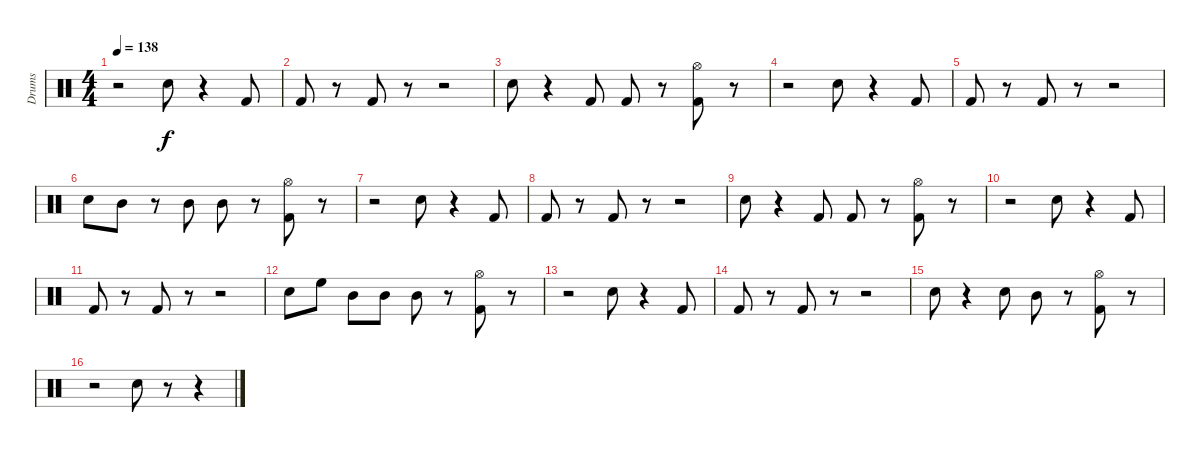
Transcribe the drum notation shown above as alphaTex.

\track ("Drums" "Drums") {instrument percussion}
\staff {score}
\articulation defaults
\ts (4 4)
\tempo 138
\clef neutral
\ks c
r.2{dy f} "Snare (hit) 2".8 r.4 "Kick (hit) 2".8 |
"Kick (hit) 2".8 r.8 "Kick (hit) 2".8 r.8 r.2 |
"Snare (hit) 2".8 r.4 "Kick (hit) 2".8 "Kick (hit) 2".8 r.8 ("Hi-Hat (open)" "Kick (hit) 2").8 r.8 |
r.2 "Snare (hit) 2".8 r.4 "Kick (hit) 2".8 |
"Kick (hit) 2".8 r.8 "Kick (hit) 2".8 r.8 r.2 |
"Snare (hit) 2".8 "Mid Tom (hit)".8 r.8 "Mid Tom (hit)".8 "Mid Tom (hit)".8 r.8 ("Hi-Hat (open)" "Kick (hit) 2").8 r.8 |
r.2 "Snare (hit) 2".8 r.4 "Kick (hit) 2".8 |
"Kick (hit) 2".8 r.8 "Kick (hit) 2".8 r.8 r.2 |
"Snare (hit) 2".8 r.4 "Kick (hit) 2".8 "Kick (hit) 2".8 r.8 ("Hi-Hat (open)" "Kick (hit) 2").8 r.8 |
r.2 "Snare (hit) 2".8 r.4 "Kick (hit) 2".8 |
"Kick (hit) 2".8 r.8 "Kick (hit) 2".8 r.8 r.2 |
"Snare (hit) 2".8 "High Floor Tom (hit)".8 "Mid Tom (hit)".8 "Mid Tom (hit)".8 "Mid Tom (hit)".8 r.8 ("Hi-Hat (open)" "Kick (hit) 2").8 r.8 |
r.2 "Snare (hit) 2".8 r.4 "Kick (hit) 2".8 |
"Kick (hit) 2".8 r.8 "Kick (hit) 2".8 r.8 r.2 |
"Snare (hit) 2".8 r.4 "Snare (hit) 2".8 "Mid Tom (hit)".8 r.8 ("Hi-Hat (open)" "Kick (hit) 2").8 r.8 |
r.2 "Snare (hit) 2".8 r.8 r.4
